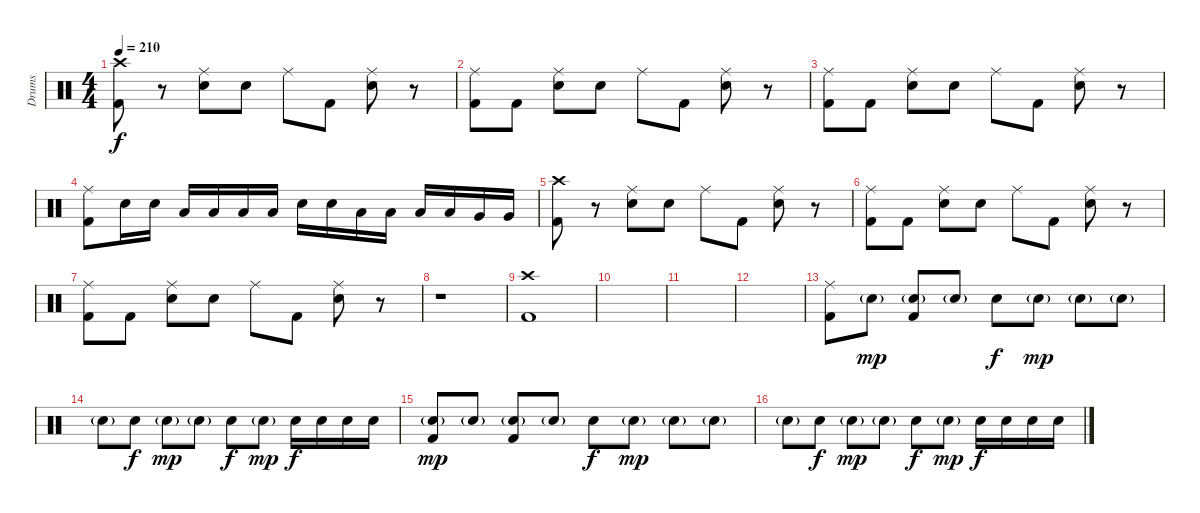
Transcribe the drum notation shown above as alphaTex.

\track ("Drums" "Drums") {instrument percussion}
\staff {score}
\articulation defaults
\ts (4 4)
\tempo 210
\clef neutral
\ks c
("Crash high (hit)" "Kick (hit) 2").8{dy f} r.8 ("Ride (middle)" "Electric Snare (hit)").8 "Electric Snare (hit)".8 "Ride (middle)".8 "Kick (hit) 2".8 ("Ride (middle)" "Electric Snare (hit)").8 r.8 |
("Ride (middle)" "Kick (hit) 2").8 "Kick (hit) 2".8 ("Ride (middle)" "Electric Snare (hit)").8 "Electric Snare (hit)".8 "Ride (middle)".8 "Kick (hit) 2".8 ("Ride (middle)" "Electric Snare (hit)").8 r.8 |
("Ride (middle)" "Kick (hit) 2").8 "Kick (hit) 2".8 ("Ride (middle)" "Electric Snare (hit)").8 "Electric Snare (hit)".8 "Ride (middle)".8 "Kick (hit) 2".8 ("Ride (middle)" "Electric Snare (hit)").8 r.8 |
("Ride (middle)" "Kick (hit) 2").8 "Electric Snare (hit)".16 "Electric Snare (hit)".16 "Low Tom (hit)".16 "Low Tom (hit)".16 "Low Tom (hit)".16 "Low Tom (hit)".16 "Electric Snare (hit)".16 "Electric Snare (hit)".16 "Low Tom (hit)".16 "Low Tom (hit)".16 "Low Tom (hit)".16 "Low Tom (hit)".16 "Very Low Tom (hit)".16 "Very Low Tom (hit)".16 |
("Crash high (hit)" "Kick (hit) 2").8 r.8 ("Ride (middle)" "Electric Snare (hit)").8 "Electric Snare (hit)".8 "Ride (middle)".8 "Kick (hit) 2".8 ("Ride (middle)" "Electric Snare (hit)").8 r.8 |
("Ride (middle)" "Kick (hit) 2").8 "Kick (hit) 2".8 ("Ride (middle)" "Electric Snare (hit)").8 "Electric Snare (hit)".8 "Ride (middle)".8 "Kick (hit) 2".8 ("Ride (middle)" "Electric Snare (hit)").8 r.8 |
("Ride (middle)" "Kick (hit) 2").8 "Kick (hit) 2".8 ("Ride (middle)" "Electric Snare (hit)").8 "Electric Snare (hit)".8 "Ride (middle)".8 "Kick (hit) 2".8 ("Ride (middle)" "Electric Snare (hit)").8 r.8 |
r.1 |
("Crash high (hit)" "Kick (hit) 2").1 |
|
|
|
("Ride (middle)" "Kick (hit) 2").8 "Electric Snare (hit)"{g}.8{dy mp volume 11} ("Electric Snare (hit)"{g} "Kick (hit) 2").8 "Electric Snare (hit)"{g}.8 "Electric Snare (hit)".8{dy f} "Electric Snare (hit)"{g}.8{dy mp} "Electric Snare (hit)"{g}.8 "Electric Snare (hit)"{g}.8 |
"Snare (hit) 2"{g}.8 "Electric Snare (hit)".8{dy f} "Electric Snare (hit)"{g}.8{dy mp} "Electric Snare (hit)"{g}.8 "Electric Snare (hit)".8{dy f} "Snare (hit) 2"{g}.8{dy mp} "Electric Snare (hit)".16{dy f} "Electric Snare (hit)".16 "Electric Snare (hit)".16 "Electric Snare (hit)".16 |
("Electric Snare (hit)"{g} "Kick (hit) 2").8{dy mp} "Electric Snare (hit)"{g}.8 ("Electric Snare (hit)"{g} "Kick (hit) 2").8 "Electric Snare (hit)"{g}.8 "Electric Snare (hit)".8{dy f} "Electric Snare (hit)"{g}.8{dy mp} "Electric Snare (hit)"{g}.8 "Electric Snare (hit)"{g}.8 |
"Electric Snare (hit)"{g}.8 "Electric Snare (hit)".8{dy f} "Electric Snare (hit)"{g}.8{dy mp} "Electric Snare (hit)"{g}.8 "Electric Snare (hit)".8{dy f} "Electric Snare (hit)"{g}.8{dy mp} "Electric Snare (hit)".16{dy f} "Electric Snare (hit)".16 "Electric Snare (hit)".16 "Electric Snare (hit)".16
